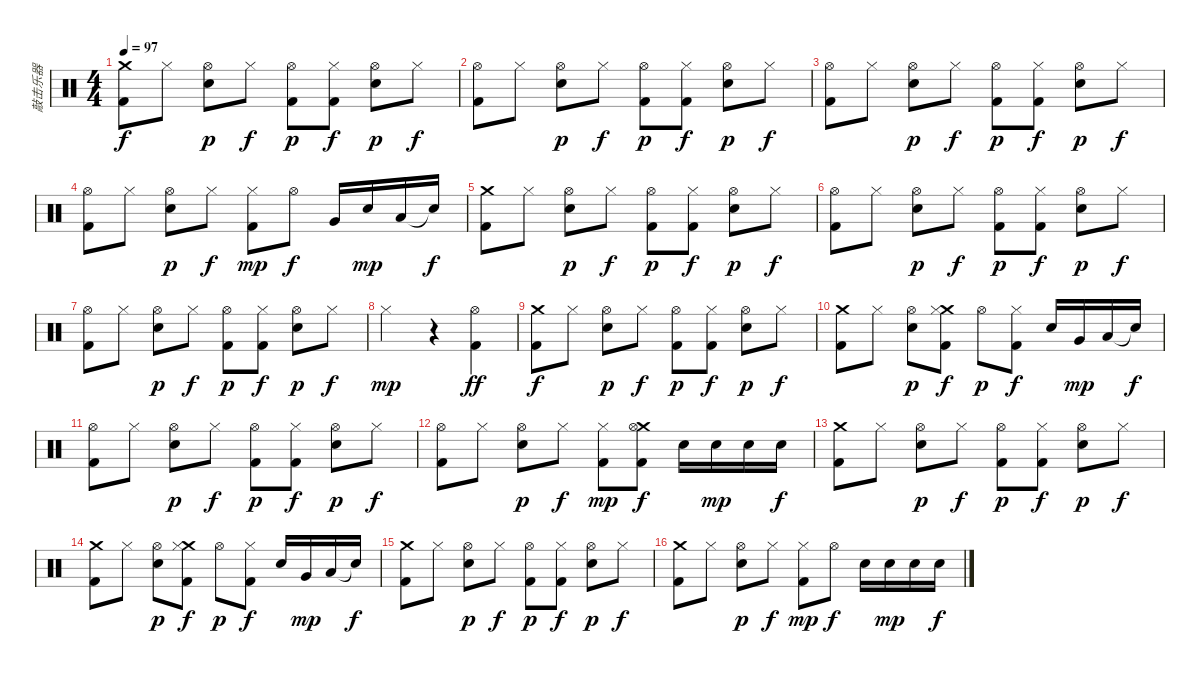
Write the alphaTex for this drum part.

\track ("敲击乐器" "敲击乐器") {instrument percussion}
\staff {score}
\articulation defaults
\ts (4 4)
\tempo 97
\clef neutral
\ks c
("Crash medium (hit)" "Kick (hit) 2").8{dy f} "Hi-Hat (closed)".8 ("Hi-Hat (open)" "Snare (hit) 2").8{dy p} "Hi-Hat (closed)".8{dy f} ("Hi-Hat (open)" "Kick (hit) 2").8{dy p} ("Hi-Hat (closed)" "Kick (hit) 2").8{dy f} ("Hi-Hat (open)" "Snare (hit) 2").8{dy p} "Hi-Hat (closed)".8{dy f} |
("Hi-Hat (open)" "Kick (hit) 2").8 "Hi-Hat (closed)".8 ("Hi-Hat (open)" "Snare (hit) 2").8{dy p} "Hi-Hat (closed)".8{dy f} ("Hi-Hat (open)" "Kick (hit) 2").8{dy p} ("Hi-Hat (closed)" "Kick (hit) 2").8{dy f} ("Hi-Hat (open)" "Snare (hit) 2").8{dy p} "Hi-Hat (closed)".8{dy f} |
("Hi-Hat (open)" "Kick (hit) 2").8 "Hi-Hat (closed)".8 ("Hi-Hat (open)" "Snare (hit) 2").8{dy p} "Hi-Hat (closed)".8{dy f} ("Hi-Hat (open)" "Kick (hit) 2").8{dy p} ("Hi-Hat (closed)" "Kick (hit) 2").8{dy f} ("Hi-Hat (open)" "Snare (hit) 2").8{dy p} "Hi-Hat (closed)".8{dy f} |
("Hi-Hat (open)" "Kick (hit) 2").8 "Hi-Hat (closed)".8 ("Hi-Hat (open)" "Snare (hit) 2").8{dy p} "Hi-Hat (closed)".8{dy f} ("Hi-Hat (closed)" "Kick (hit) 2").8{dy mp} "Hi-Hat (open)".8{dy f} "Very Low Tom (hit)".16 "Snare (hit) 2".16{dy mp} "Low Floor Tom (hit)".16 "Snare (hit)"{t}.16{dy f} |
("Crash medium (hit)" "Kick (hit) 2").8 "Hi-Hat (closed)".8 ("Hi-Hat (open)" "Snare (hit) 2").8{dy p} "Hi-Hat (closed)".8{dy f} ("Hi-Hat (open)" "Kick (hit) 2").8{dy p} ("Hi-Hat (closed)" "Kick (hit) 2").8{dy f} ("Hi-Hat (open)" "Snare (hit) 2").8{dy p} "Hi-Hat (closed)".8{dy f} |
("Hi-Hat (open)" "Kick (hit) 2").8 "Hi-Hat (closed)".8 ("Hi-Hat (open)" "Snare (hit) 2").8{dy p} "Hi-Hat (closed)".8{dy f} ("Hi-Hat (open)" "Kick (hit) 2").8{dy p} ("Hi-Hat (closed)" "Kick (hit) 2").8{dy f} ("Hi-Hat (open)" "Snare (hit) 2").8{dy p} "Hi-Hat (closed)".8{dy f} |
("Hi-Hat (open)" "Kick (hit) 2").8 "Hi-Hat (closed)".8 ("Hi-Hat (open)" "Snare (hit) 2").8{dy p} "Hi-Hat (closed)".8{dy f} ("Hi-Hat (open)" "Kick (hit) 2").8{dy p} ("Hi-Hat (closed)" "Kick (hit) 2").8{dy f} ("Hi-Hat (open)" "Snare (hit) 2").8{dy p} "Hi-Hat (closed)".8{dy f} |
"Hi-Hat (closed)".2{dy mp} r.4 ("Hi-Hat (open)" "Kick (hit) 2").4{dy ff} |
("Crash medium (hit)" "Kick (hit) 2").8{dy f} "Hi-Hat (closed)".8 ("Hi-Hat (open)" "Snare (hit) 2").8{dy p} "Hi-Hat (closed)".8{dy f} ("Hi-Hat (open)" "Kick (hit) 2").8{dy p} ("Hi-Hat (closed)" "Kick (hit) 2").8{dy f} ("Hi-Hat (open)" "Snare (hit) 2").8{dy p} "Hi-Hat (closed)".8{dy f} |
("Crash medium (hit)" "Kick (hit) 2").8 "Hi-Hat (closed)".8 ("Hi-Hat (open)" "Snare (hit) 2").8{dy p} ("Crash medium (hit)" "Hi-Hat (closed)" "Kick (hit) 2").8{dy f} "Hi-Hat (open)".8{dy p} ("Hi-Hat (closed)" "Kick (hit) 2").8{dy f} "Snare (hit) 2".16 "Very Low Tom (hit)".16{dy mp} "Low Floor Tom (hit)".16 "Snare (hit)"{t}.16{dy f} |
("Hi-Hat (open)" "Kick (hit) 2").8 "Hi-Hat (closed)".8 ("Hi-Hat (open)" "Snare (hit) 2").8{dy p} "Hi-Hat (closed)".8{dy f} ("Hi-Hat (open)" "Kick (hit) 2").8{dy p} ("Hi-Hat (closed)" "Kick (hit) 2").8{dy f} ("Hi-Hat (open)" "Snare (hit) 2").8{dy p} "Hi-Hat (closed)".8{dy f} |
("Hi-Hat (open)" "Kick (hit) 2").8 "Hi-Hat (closed)".8 ("Hi-Hat (open)" "Snare (hit) 2").8{dy p} "Hi-Hat (closed)".8{dy f} ("Hi-Hat (closed)" "Kick (hit) 2").8{dy mp} ("Crash medium (hit)" "Hi-Hat (open)" "Kick (hit) 2").8{dy f} "Snare (hit) 2".16 "Snare (hit) 2".16{dy mp} "Snare (hit) 2".16 "Snare (hit) 2".16{dy f} |
("Crash medium (hit)" "Kick (hit) 2").8 "Hi-Hat (closed)".8 ("Hi-Hat (open)" "Snare (hit) 2").8{dy p} "Hi-Hat (closed)".8{dy f} ("Hi-Hat (open)" "Kick (hit) 2").8{dy p} ("Hi-Hat (closed)" "Kick (hit) 2").8{dy f} ("Hi-Hat (open)" "Snare (hit) 2").8{dy p} "Hi-Hat (closed)".8{dy f} |
("Crash medium (hit)" "Kick (hit) 2").8 "Hi-Hat (closed)".8 ("Hi-Hat (open)" "Snare (hit) 2").8{dy p} ("Crash medium (hit)" "Hi-Hat (closed)" "Kick (hit) 2").8{dy f} "Hi-Hat (open)".8{dy p} ("Hi-Hat (closed)" "Kick (hit) 2").8{dy f} "Snare (hit) 2".16 "Very Low Tom (hit)".16{dy mp} "Low Floor Tom (hit)".16 "Snare (hit)"{t}.16{dy f} |
("Crash medium (hit)" "Kick (hit) 2").8 "Hi-Hat (closed)".8 ("Hi-Hat (open)" "Snare (hit) 2").8{dy p} "Hi-Hat (closed)".8{dy f} ("Hi-Hat (open)" "Kick (hit) 2").8{dy p} ("Hi-Hat (closed)" "Kick (hit) 2").8{dy f} ("Hi-Hat (open)" "Snare (hit) 2").8{dy p} "Hi-Hat (closed)".8{dy f} |
("Crash medium (hit)" "Kick (hit) 2").8 "Hi-Hat (closed)".8 ("Hi-Hat (open)" "Snare (hit) 2").8{dy p} "Hi-Hat (closed)".8{dy f} ("Hi-Hat (closed)" "Kick (hit) 2").8{dy mp} "Hi-Hat (open)".8{dy f} "Snare (hit) 2".16 "Snare (hit) 2".16{dy mp} "Snare (hit) 2".16 "Snare (hit) 2".16{dy f}
